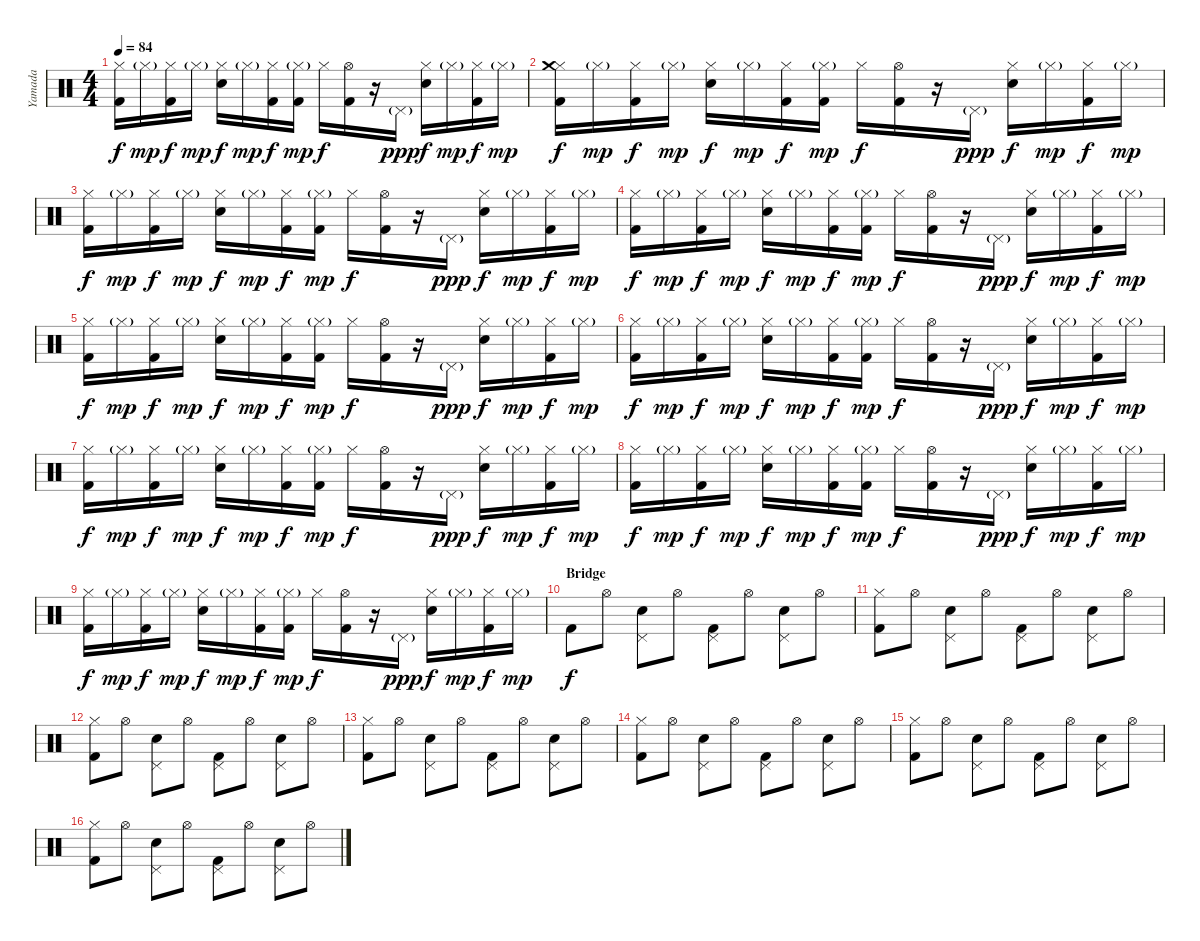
\track ("Yamada" "Yamada") {instrument percussion}
\staff {score}
\articulation defaults
\ts (4 4)
\tempo 84
\clef neutral
\ks c
("Hi-Hat (closed)" "Kick (hit) 2").16{dy f} "Hi-Hat (closed)"{g}.16{dy mp} ("Hi-Hat (closed)" "Kick (hit) 2").16{dy f} "Hi-Hat (closed)"{g}.16{dy mp} ("Hi-Hat (closed)" "Electric Snare (hit)").16{dy f} "Hi-Hat (closed)"{g}.16{dy mp} ("Hi-Hat (closed)" "Kick (hit) 2").16{dy f} ("Hi-Hat (closed)"{g} "Kick (hit) 2").16{dy mp} "Hi-Hat (closed)".16{dy f} ("Hi-Hat (open)" "Kick (hit) 2").16 r.16 "Pedal Hi-Hat (hit)"{g}.16{dy ppp} ("Hi-Hat (closed)" "Electric Snare (hit)").16{dy f} "Hi-Hat (closed)"{g}.16{dy mp} ("Hi-Hat (closed)" "Kick (hit) 2").16{dy f} "Hi-Hat (closed)"{g}.16{dy mp} |
("Hi-Hat (closed)" "Crash medium (hit)" "Kick (hit) 2").16{dy f} "Hi-Hat (closed)"{g}.16{dy mp} ("Hi-Hat (closed)" "Kick (hit) 2").16{dy f} "Hi-Hat (closed)"{g}.16{dy mp} ("Hi-Hat (closed)" "Electric Snare (hit)").16{dy f} "Hi-Hat (closed)"{g}.16{dy mp} ("Hi-Hat (closed)" "Kick (hit) 2").16{dy f} ("Hi-Hat (closed)"{g} "Kick (hit) 2").16{dy mp} "Hi-Hat (closed)".16{dy f} ("Hi-Hat (open)" "Kick (hit) 2").16 r.16 "Pedal Hi-Hat (hit)"{g}.16{dy ppp} ("Hi-Hat (closed)" "Electric Snare (hit)").16{dy f} "Hi-Hat (closed)"{g}.16{dy mp} ("Hi-Hat (closed)" "Kick (hit) 2").16{dy f} "Hi-Hat (closed)"{g}.16{dy mp} |
("Hi-Hat (closed)" "Kick (hit) 2").16{dy f} "Hi-Hat (closed)"{g}.16{dy mp} ("Hi-Hat (closed)" "Kick (hit) 2").16{dy f} "Hi-Hat (closed)"{g}.16{dy mp} ("Hi-Hat (closed)" "Electric Snare (hit)").16{dy f} "Hi-Hat (closed)"{g}.16{dy mp} ("Hi-Hat (closed)" "Kick (hit) 2").16{dy f} ("Hi-Hat (closed)"{g} "Kick (hit) 2").16{dy mp} "Hi-Hat (closed)".16{dy f} ("Hi-Hat (open)" "Kick (hit) 2").16 r.16 "Pedal Hi-Hat (hit)"{g}.16{dy ppp} ("Hi-Hat (closed)" "Electric Snare (hit)").16{dy f} "Hi-Hat (closed)"{g}.16{dy mp} ("Hi-Hat (closed)" "Kick (hit) 2").16{dy f} "Hi-Hat (closed)"{g}.16{dy mp} |
("Hi-Hat (closed)" "Kick (hit) 2").16{dy f} "Hi-Hat (closed)"{g}.16{dy mp} ("Hi-Hat (closed)" "Kick (hit) 2").16{dy f} "Hi-Hat (closed)"{g}.16{dy mp} ("Hi-Hat (closed)" "Electric Snare (hit)").16{dy f} "Hi-Hat (closed)"{g}.16{dy mp} ("Hi-Hat (closed)" "Kick (hit) 2").16{dy f} ("Hi-Hat (closed)"{g} "Kick (hit) 2").16{dy mp} "Hi-Hat (closed)".16{dy f} ("Hi-Hat (open)" "Kick (hit) 2").16 r.16 "Pedal Hi-Hat (hit)"{g}.16{dy ppp} ("Hi-Hat (closed)" "Electric Snare (hit)").16{dy f} "Hi-Hat (closed)"{g}.16{dy mp} ("Hi-Hat (closed)" "Kick (hit) 2").16{dy f} "Hi-Hat (closed)"{g}.16{dy mp} |
("Hi-Hat (closed)" "Kick (hit) 2").16{dy f} "Hi-Hat (closed)"{g}.16{dy mp} ("Hi-Hat (closed)" "Kick (hit) 2").16{dy f} "Hi-Hat (closed)"{g}.16{dy mp} ("Hi-Hat (closed)" "Electric Snare (hit)").16{dy f} "Hi-Hat (closed)"{g}.16{dy mp} ("Hi-Hat (closed)" "Kick (hit) 2").16{dy f} ("Hi-Hat (closed)"{g} "Kick (hit) 2").16{dy mp} "Hi-Hat (closed)".16{dy f} ("Hi-Hat (open)" "Kick (hit) 2").16 r.16 "Pedal Hi-Hat (hit)"{g}.16{dy ppp} ("Hi-Hat (closed)" "Electric Snare (hit)").16{dy f} "Hi-Hat (closed)"{g}.16{dy mp} ("Hi-Hat (closed)" "Kick (hit) 2").16{dy f} "Hi-Hat (closed)"{g}.16{dy mp} |
("Hi-Hat (closed)" "Kick (hit) 2").16{dy f} "Hi-Hat (closed)"{g}.16{dy mp} ("Hi-Hat (closed)" "Kick (hit) 2").16{dy f} "Hi-Hat (closed)"{g}.16{dy mp} ("Hi-Hat (closed)" "Electric Snare (hit)").16{dy f} "Hi-Hat (closed)"{g}.16{dy mp} ("Hi-Hat (closed)" "Kick (hit) 2").16{dy f} ("Hi-Hat (closed)"{g} "Kick (hit) 2").16{dy mp} "Hi-Hat (closed)".16{dy f} ("Hi-Hat (open)" "Kick (hit) 2").16 r.16 "Pedal Hi-Hat (hit)"{g}.16{dy ppp} ("Hi-Hat (closed)" "Electric Snare (hit)").16{dy f} "Hi-Hat (closed)"{g}.16{dy mp} ("Hi-Hat (closed)" "Kick (hit) 2").16{dy f} "Hi-Hat (closed)"{g}.16{dy mp} |
("Hi-Hat (closed)" "Kick (hit) 2").16{dy f} "Hi-Hat (closed)"{g}.16{dy mp} ("Hi-Hat (closed)" "Kick (hit) 2").16{dy f} "Hi-Hat (closed)"{g}.16{dy mp} ("Hi-Hat (closed)" "Electric Snare (hit)").16{dy f} "Hi-Hat (closed)"{g}.16{dy mp} ("Hi-Hat (closed)" "Kick (hit) 2").16{dy f} ("Hi-Hat (closed)"{g} "Kick (hit) 2").16{dy mp} "Hi-Hat (closed)".16{dy f} ("Hi-Hat (open)" "Kick (hit) 2").16 r.16 "Pedal Hi-Hat (hit)"{g}.16{dy ppp} ("Hi-Hat (closed)" "Electric Snare (hit)").16{dy f} "Hi-Hat (closed)"{g}.16{dy mp} ("Hi-Hat (closed)" "Kick (hit) 2").16{dy f} "Hi-Hat (closed)"{g}.16{dy mp} |
("Hi-Hat (closed)" "Kick (hit) 2").16{dy f} "Hi-Hat (closed)"{g}.16{dy mp} ("Hi-Hat (closed)" "Kick (hit) 2").16{dy f} "Hi-Hat (closed)"{g}.16{dy mp} ("Hi-Hat (closed)" "Electric Snare (hit)").16{dy f} "Hi-Hat (closed)"{g}.16{dy mp} ("Hi-Hat (closed)" "Kick (hit) 2").16{dy f} ("Hi-Hat (closed)"{g} "Kick (hit) 2").16{dy mp} "Hi-Hat (closed)".16{dy f} ("Hi-Hat (open)" "Kick (hit) 2").16 r.16 "Pedal Hi-Hat (hit)"{g}.16{dy ppp} ("Hi-Hat (closed)" "Electric Snare (hit)").16{dy f} "Hi-Hat (closed)"{g}.16{dy mp} ("Hi-Hat (closed)" "Kick (hit) 2").16{dy f} "Hi-Hat (closed)"{g}.16{dy mp} |
("Hi-Hat (closed)" "Kick (hit) 2").16{dy f} "Hi-Hat (closed)"{g}.16{dy mp} ("Hi-Hat (closed)" "Kick (hit) 2").16{dy f} "Hi-Hat (closed)"{g}.16{dy mp} ("Hi-Hat (closed)" "Electric Snare (hit)").16{dy f} "Hi-Hat (closed)"{g}.16{dy mp} ("Hi-Hat (closed)" "Kick (hit) 2").16{dy f} ("Hi-Hat (closed)"{g} "Kick (hit) 2").16{dy mp} "Hi-Hat (closed)".16{dy f} ("Hi-Hat (open)" "Kick (hit) 2").16 r.16 "Pedal Hi-Hat (hit)"{g}.16{dy ppp} ("Hi-Hat (closed)" "Electric Snare (hit)").16{dy f} "Hi-Hat (closed)"{g}.16{dy mp} ("Hi-Hat (closed)" "Kick (hit) 2").16{dy f} "Hi-Hat (closed)"{g}.16{dy mp} |
\section ("" "Bridge")
"Kick (hit) 2".8{dy f} "Hi-Hat (open)".8 ("Pedal Hi-Hat (hit)" "Electric Snare (hit)").8 "Hi-Hat (open)".8 ("Pedal Hi-Hat (hit)" "Kick (hit) 2").8 "Hi-Hat (open)".8 ("Pedal Hi-Hat (hit)" "Electric Snare (hit)").8 "Hi-Hat (open)".8 |
("Hi-Hat (closed)" "Kick (hit) 2").8 "Hi-Hat (open)".8 ("Pedal Hi-Hat (hit)" "Electric Snare (hit)").8 "Hi-Hat (open)".8 ("Pedal Hi-Hat (hit)" "Kick (hit) 2").8 "Hi-Hat (open)".8 ("Pedal Hi-Hat (hit)" "Electric Snare (hit)").8 "Hi-Hat (open)".8 |
("Hi-Hat (closed)" "Kick (hit) 2").8 "Hi-Hat (open)".8 ("Pedal Hi-Hat (hit)" "Electric Snare (hit)").8 "Hi-Hat (open)".8 ("Pedal Hi-Hat (hit)" "Kick (hit) 2").8 "Hi-Hat (open)".8 ("Pedal Hi-Hat (hit)" "Electric Snare (hit)").8 "Hi-Hat (open)".8 |
("Hi-Hat (closed)" "Kick (hit) 2").8 "Hi-Hat (open)".8 ("Pedal Hi-Hat (hit)" "Electric Snare (hit)").8 "Hi-Hat (open)".8 ("Pedal Hi-Hat (hit)" "Kick (hit) 2").8 "Hi-Hat (open)".8 ("Pedal Hi-Hat (hit)" "Electric Snare (hit)").8 "Hi-Hat (open)".8 |
("Hi-Hat (closed)" "Kick (hit) 2").8 "Hi-Hat (open)".8 ("Pedal Hi-Hat (hit)" "Electric Snare (hit)").8 "Hi-Hat (open)".8 ("Pedal Hi-Hat (hit)" "Kick (hit) 2").8 "Hi-Hat (open)".8 ("Pedal Hi-Hat (hit)" "Electric Snare (hit)").8 "Hi-Hat (open)".8 |
("Hi-Hat (closed)" "Kick (hit) 2").8 "Hi-Hat (open)".8 ("Pedal Hi-Hat (hit)" "Electric Snare (hit)").8 "Hi-Hat (open)".8 ("Pedal Hi-Hat (hit)" "Kick (hit) 2").8 "Hi-Hat (open)".8 ("Pedal Hi-Hat (hit)" "Electric Snare (hit)").8 "Hi-Hat (open)".8 |
("Hi-Hat (closed)" "Kick (hit) 2").8 "Hi-Hat (open)".8 ("Pedal Hi-Hat (hit)" "Electric Snare (hit)").8 "Hi-Hat (open)".8 ("Pedal Hi-Hat (hit)" "Kick (hit) 2").8 "Hi-Hat (open)".8 ("Pedal Hi-Hat (hit)" "Electric Snare (hit)").8 "Hi-Hat (open)".8
